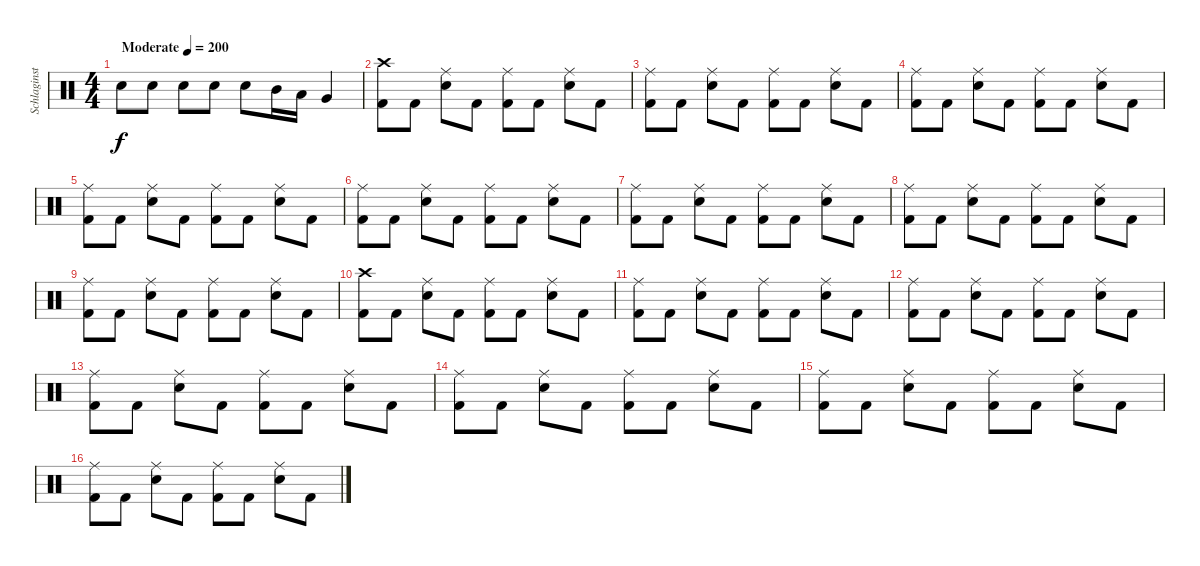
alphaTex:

\track ("Schlaginstrumente - Auswahl" "Schlaginst") {instrument percussion}
\staff {score}
\articulation defaults
\ts (4 4)
\tempo (200 "Moderate")
\clef neutral
\ks c "Snare (hit) 2".8{dy f} "Snare (hit) 2".8 "Snare (hit) 2".8 "Snare (hit) 2".8 "Snare (hit) 2".8 "Mid Tom (hit)".16 "Low Tom (hit)".16 "Very Low Tom (hit)".4
|
("Crash high (hit)" "Kick (hit) 2").8 "Kick (hit) 2".8 ("Ride (middle)" "Snare (hit) 2").8 "Kick (hit) 2".8 ("Ride (middle)" "Kick (hit) 2").8 "Kick (hit) 2".8 ("Ride (middle)" "Snare (hit) 2").8 "Kick (hit) 2".8 |
("Ride (middle)" "Kick (hit) 2").8 "Kick (hit) 2".8 ("Ride (middle)" "Snare (hit) 2").8 "Kick (hit) 2".8 ("Ride (middle)" "Kick (hit) 2").8 "Kick (hit) 2".8 ("Ride (middle)" "Snare (hit) 2").8 "Kick (hit) 2".8 |
("Ride (middle)" "Kick (hit) 2").8 "Kick (hit) 2".8 ("Ride (middle)" "Snare (hit) 2").8 "Kick (hit) 2".8 ("Ride (middle)" "Kick (hit) 2").8 "Kick (hit) 2".8 ("Ride (middle)" "Snare (hit) 2").8 "Kick (hit) 2".8 |
("Ride (middle)" "Kick (hit) 2").8 "Kick (hit) 2".8 ("Ride (middle)" "Snare (hit) 2").8 "Kick (hit) 2".8 ("Ride (middle)" "Kick (hit) 2").8 "Kick (hit) 2".8 ("Ride (middle)" "Snare (hit) 2").8 "Kick (hit) 2".8 |
("Ride (middle)" "Kick (hit) 2").8 "Kick (hit) 2".8 ("Ride (middle)" "Snare (hit) 2").8 "Kick (hit) 2".8 ("Ride (middle)" "Kick (hit) 2").8 "Kick (hit) 2".8 ("Ride (middle)" "Snare (hit) 2").8 "Kick (hit) 2".8 |
("Ride (middle)" "Kick (hit) 2").8 "Kick (hit) 2".8 ("Ride (middle)" "Snare (hit) 2").8 "Kick (hit) 2".8 ("Ride (middle)" "Kick (hit) 2").8 "Kick (hit) 2".8 ("Ride (middle)" "Snare (hit) 2").8 "Kick (hit) 2".8 |
("Ride (middle)" "Kick (hit) 2").8 "Kick (hit) 2".8 ("Ride (middle)" "Snare (hit) 2").8 "Kick (hit) 2".8 ("Ride (middle)" "Kick (hit) 2").8 "Kick (hit) 2".8 ("Ride (middle)" "Snare (hit) 2").8 "Kick (hit) 2".8 |
("Ride (middle)" "Kick (hit) 2").8 "Kick (hit) 2".8 ("Ride (middle)" "Snare (hit) 2").8 "Kick (hit) 2".8 ("Ride (middle)" "Kick (hit) 2").8 "Kick (hit) 2".8 ("Ride (middle)" "Snare (hit) 2").8 "Kick (hit) 2".8 |
("Crash high (hit)" "Kick (hit) 2").8 "Kick (hit) 2".8 ("Ride (middle)" "Snare (hit) 2").8 "Kick (hit) 2".8 ("Ride (middle)" "Kick (hit) 2").8 "Kick (hit) 2".8 ("Ride (middle)" "Snare (hit) 2").8 "Kick (hit) 2".8 |
("Ride (middle)" "Kick (hit) 2").8 "Kick (hit) 2".8 ("Ride (middle)" "Snare (hit) 2").8 "Kick (hit) 2".8 ("Ride (middle)" "Kick (hit) 2").8 "Kick (hit) 2".8 ("Ride (middle)" "Snare (hit) 2").8 "Kick (hit) 2".8 |
("Ride (middle)" "Kick (hit) 2").8 "Kick (hit) 2".8 ("Ride (middle)" "Snare (hit) 2").8 "Kick (hit) 2".8 ("Ride (middle)" "Kick (hit) 2").8 "Kick (hit) 2".8 ("Ride (middle)" "Snare (hit) 2").8 "Kick (hit) 2".8 |
("Ride (middle)" "Kick (hit) 2").8 "Kick (hit) 2".8 ("Ride (middle)" "Snare (hit) 2").8 "Kick (hit) 2".8 ("Ride (middle)" "Kick (hit) 2").8 "Kick (hit) 2".8 ("Ride (middle)" "Snare (hit) 2").8 "Kick (hit) 2".8 |
("Ride (middle)" "Kick (hit) 2").8 "Kick (hit) 2".8 ("Ride (middle)" "Snare (hit) 2").8 "Kick (hit) 2".8 ("Ride (middle)" "Kick (hit) 2").8 "Kick (hit) 2".8 ("Ride (middle)" "Snare (hit) 2").8 "Kick (hit) 2".8 |
("Ride (middle)" "Kick (hit) 2").8 "Kick (hit) 2".8 ("Ride (middle)" "Snare (hit) 2").8 "Kick (hit) 2".8 ("Ride (middle)" "Kick (hit) 2").8 "Kick (hit) 2".8 ("Ride (middle)" "Snare (hit) 2").8 "Kick (hit) 2".8 |
("Ride (middle)" "Kick (hit) 2").8 "Kick (hit) 2".8 ("Ride (middle)" "Snare (hit) 2").8 "Kick (hit) 2".8 ("Ride (middle)" "Kick (hit) 2").8 "Kick (hit) 2".8 ("Ride (middle)" "Snare (hit) 2").8 "Kick (hit) 2".8
